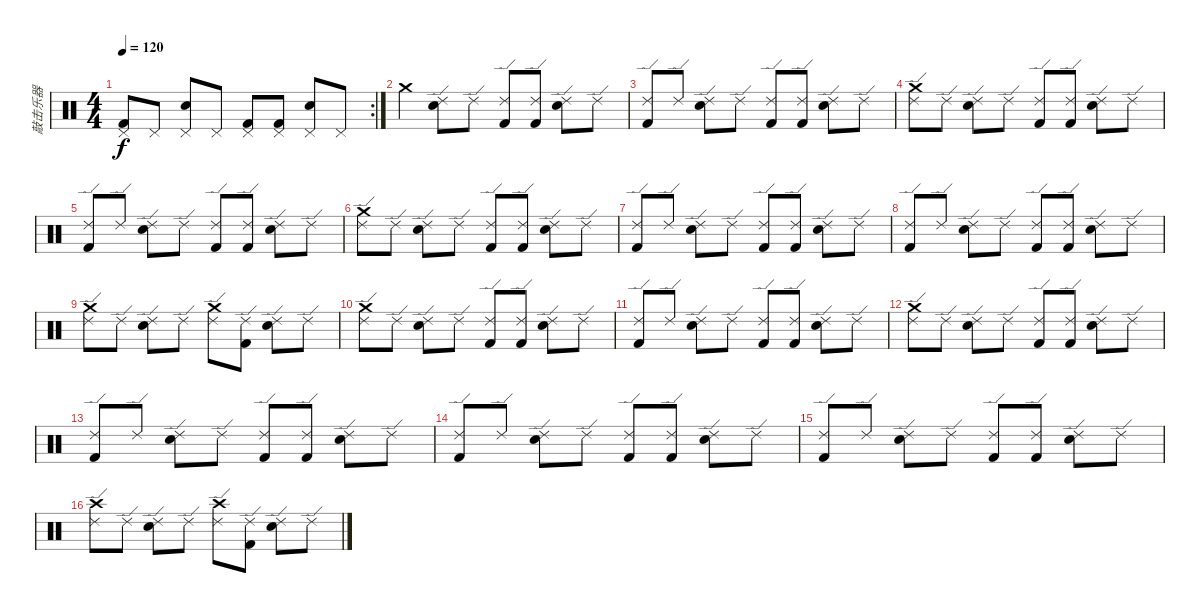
\track ("敲击乐器" "敲击乐器") {instrument percussion}
\staff {score}
\articulation defaults
\rc 2
\ts (4 4)
\tempo 120
\clef neutral
\ks c
("Kick (hit) 2" "Pedal Hi-Hat (hit)").8{dy f} "Pedal Hi-Hat (hit)".8 ("Electric Snare (hit)" "Pedal Hi-Hat (hit)").8 "Pedal Hi-Hat (hit)".8 ("Kick (hit) 2" "Pedal Hi-Hat (hit)").8 ("Kick (hit) 2" "Pedal Hi-Hat (hit)").8 ("Electric Snare (hit)" "Pedal Hi-Hat (hit)").8 "Pedal Hi-Hat (hit)".8 |
"Crash medium (hit)".4 ("Electric Snare (hit)" "Ride (edge) 2").8 "Ride (edge) 2".8 ("Kick (hit) 2" "Ride (edge) 2").8 ("Kick (hit) 2" "Ride (edge) 2").8 ("Electric Snare (hit)" "Ride (edge) 2").8 "Ride (edge) 2".8 |
("Kick (hit) 2" "Ride (edge) 2").8 "Ride (edge) 2".8 ("Electric Snare (hit)" "Ride (edge) 2").8 "Ride (edge) 2".8 ("Kick (hit) 2" "Ride (edge) 2").8 ("Kick (hit) 2" "Ride (edge) 2").8 ("Electric Snare (hit)" "Ride (edge) 2").8 "Ride (edge) 2".8 |
("Crash medium (hit)" "Ride (edge) 2").8 "Ride (edge) 2".8 ("Electric Snare (hit)" "Ride (edge) 2").8 "Ride (edge) 2".8 ("Kick (hit) 2" "Ride (edge) 2").8 ("Kick (hit) 2" "Ride (edge) 2").8 ("Electric Snare (hit)" "Ride (edge) 2").8 "Ride (edge) 2".8 |
("Kick (hit) 2" "Ride (edge) 2").8 "Ride (edge) 2".8 ("Electric Snare (hit)" "Ride (edge) 2").8 "Ride (edge) 2".8 ("Kick (hit) 2" "Ride (edge) 2").8 ("Kick (hit) 2" "Ride (edge) 2").8 ("Electric Snare (hit)" "Ride (edge) 2").8 "Ride (edge) 2".8 |
("Crash medium (hit)" "Ride (edge) 2").8 "Ride (edge) 2".8 ("Electric Snare (hit)" "Ride (edge) 2").8 "Ride (edge) 2".8 ("Kick (hit) 2" "Ride (edge) 2").8 ("Kick (hit) 2" "Ride (edge) 2").8 ("Electric Snare (hit)" "Ride (edge) 2").8 "Ride (edge) 2".8 |
("Kick (hit) 2" "Ride (edge) 2").8 "Ride (edge) 2".8 ("Electric Snare (hit)" "Ride (edge) 2").8 "Ride (edge) 2".8 ("Kick (hit) 2" "Ride (edge) 2").8 ("Kick (hit) 2" "Ride (edge) 2").8 ("Electric Snare (hit)" "Ride (edge) 2").8 "Ride (edge) 2".8 |
("Kick (hit) 2" "Ride (edge) 2").8 "Ride (edge) 2".8 ("Electric Snare (hit)" "Ride (edge) 2").8 "Ride (edge) 2".8 ("Kick (hit) 2" "Ride (edge) 2").8 ("Kick (hit) 2" "Ride (edge) 2").8 ("Electric Snare (hit)" "Ride (edge) 2").8 "Ride (edge) 2".8 |
("Crash medium (hit)" "Ride (edge) 2").8 "Ride (edge) 2".8 ("Electric Snare (hit)" "Ride (edge) 2").8 "Ride (edge) 2".8 ("Crash medium (hit)" "Ride (edge) 2").8 ("Kick (hit) 2" "Ride (edge) 2").8 ("Electric Snare (hit)" "Ride (edge) 2").8 "Ride (edge) 2".8 |
("Crash medium (hit)" "Ride (edge) 2").8 "Ride (edge) 2".8 ("Electric Snare (hit)" "Ride (edge) 2").8 "Ride (edge) 2".8 ("Kick (hit) 2" "Ride (edge) 2").8 ("Kick (hit) 2" "Ride (edge) 2").8 ("Electric Snare (hit)" "Ride (edge) 2").8 "Ride (edge) 2".8 |
("Kick (hit) 2" "Ride (edge) 2").8 "Ride (edge) 2".8 ("Electric Snare (hit)" "Ride (edge) 2").8 "Ride (edge) 2".8 ("Kick (hit) 2" "Ride (edge) 2").8 ("Kick (hit) 2" "Ride (edge) 2").8 ("Electric Snare (hit)" "Ride (edge) 2").8 "Ride (edge) 2".8 |
("Crash medium (hit)" "Ride (edge) 2").8 "Ride (edge) 2".8 ("Electric Snare (hit)" "Ride (edge) 2").8 "Ride (edge) 2".8 ("Kick (hit) 2" "Ride (edge) 2").8 ("Kick (hit) 2" "Ride (edge) 2").8 ("Electric Snare (hit)" "Ride (edge) 2").8 "Ride (edge) 2".8 |
("Kick (hit) 2" "Ride (edge) 2").8 "Ride (edge) 2".8 ("Electric Snare (hit)" "Ride (edge) 2").8 "Ride (edge) 2".8 ("Kick (hit) 2" "Ride (edge) 2").8 ("Kick (hit) 2" "Ride (edge) 2").8 ("Electric Snare (hit)" "Ride (edge) 2").8 "Ride (edge) 2".8 |
("Kick (hit) 2" "Ride (edge) 2").8 "Ride (edge) 2".8 ("Electric Snare (hit)" "Ride (edge) 2").8 "Ride (edge) 2".8 ("Kick (hit) 2" "Ride (edge) 2").8 ("Kick (hit) 2" "Ride (edge) 2").8 ("Electric Snare (hit)" "Ride (edge) 2").8 "Ride (edge) 2".8 |
("Kick (hit) 2" "Ride (edge) 2").8 "Ride (edge) 2".8 ("Electric Snare (hit)" "Ride (edge) 2").8 "Ride (edge) 2".8 ("Kick (hit) 2" "Ride (edge) 2").8 ("Kick (hit) 2" "Ride (edge) 2").8 ("Electric Snare (hit)" "Ride (edge) 2").8 "Ride (edge) 2".8 |
("Crash high (hit)" "Ride (edge) 2").8 "Ride (edge) 2".8 ("Electric Snare (hit)" "Ride (edge) 2").8 "Ride (edge) 2".8 ("Crash high (hit)" "Ride (edge) 2").8 ("Kick (hit) 2" "Ride (edge) 2").8 ("Electric Snare (hit)" "Ride (edge) 2").8 "Ride (edge) 2".8
